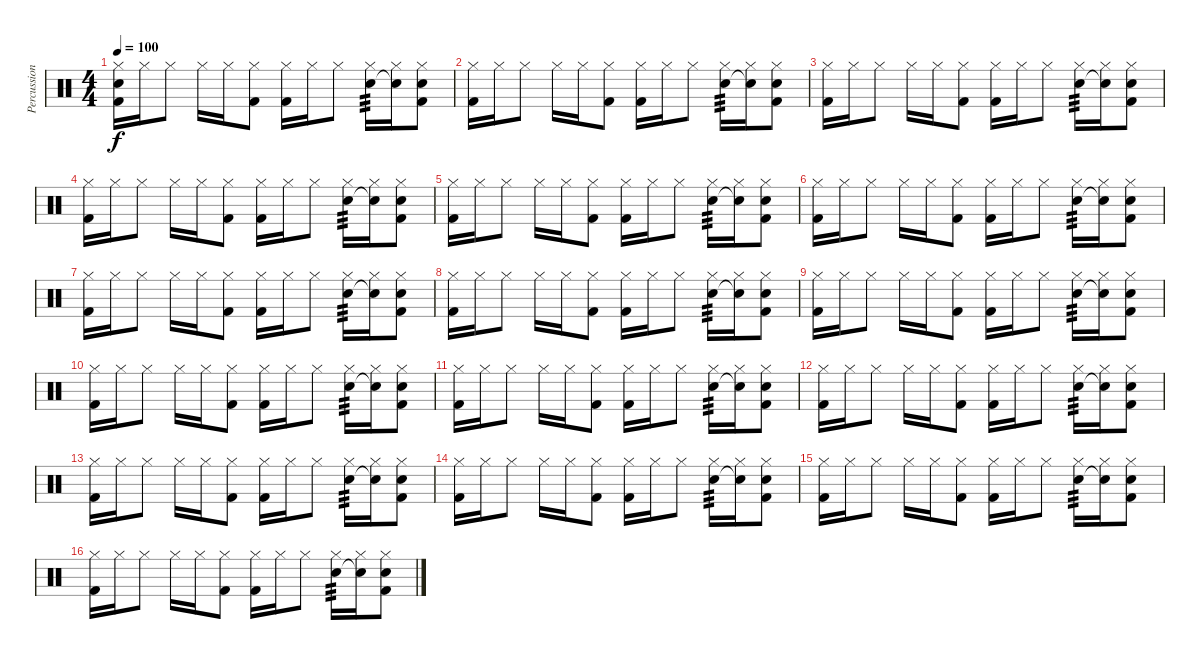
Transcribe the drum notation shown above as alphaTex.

\track ("Percussion" "Percussion") {instrument percussion}
\staff {score}
\articulation defaults
\ts (4 4)
\tempo 100
\clef neutral
\ks c
("Hi-Hat (closed)" "Snare (hit) 2" "Kick (hit) 2").16{dy f} "Hi-Hat (closed)".16 "Hi-Hat (closed)".8 "Hi-Hat (closed)".16 "Hi-Hat (closed)".16 ("Hi-Hat (closed)" "Kick (hit) 2").8 ("Hi-Hat (closed)" "Kick (hit) 2").16 "Hi-Hat (closed)".16 "Hi-Hat (closed)".8 ("Hi-Hat (closed)" "Snare (hit) 2").16{tp 3} ("Hi-Hat (closed)" "Snare (hit) 2"{t}).16 ("Hi-Hat (closed)" "Snare (hit) 2" "Kick (hit) 2").8 |
("Hi-Hat (closed)" "Kick (hit) 2").16 "Hi-Hat (closed)".16 "Hi-Hat (closed)".8 "Hi-Hat (closed)".16 "Hi-Hat (closed)".16 ("Hi-Hat (closed)" "Kick (hit) 2").8 ("Hi-Hat (closed)" "Kick (hit) 2").16 "Hi-Hat (closed)".16 "Hi-Hat (closed)".8 ("Hi-Hat (closed)" "Snare (hit) 2").16{tp 3} ("Hi-Hat (closed)" "Snare (hit) 2"{t}).16 ("Hi-Hat (closed)" "Snare (hit) 2" "Kick (hit) 2").8 |
("Hi-Hat (closed)" "Kick (hit) 2").16 "Hi-Hat (closed)".16 "Hi-Hat (closed)".8 "Hi-Hat (closed)".16 "Hi-Hat (closed)".16 ("Hi-Hat (closed)" "Kick (hit) 2").8 ("Hi-Hat (closed)" "Kick (hit) 2").16 "Hi-Hat (closed)".16 "Hi-Hat (closed)".8 ("Hi-Hat (closed)" "Snare (hit) 2").16{tp 3} ("Hi-Hat (closed)" "Snare (hit) 2"{t}).16 ("Hi-Hat (closed)" "Snare (hit) 2" "Kick (hit) 2").8 |
("Hi-Hat (closed)" "Kick (hit) 2").16 "Hi-Hat (closed)".16 "Hi-Hat (closed)".8 "Hi-Hat (closed)".16 "Hi-Hat (closed)".16 ("Hi-Hat (closed)" "Kick (hit) 2").8 ("Hi-Hat (closed)" "Kick (hit) 2").16 "Hi-Hat (closed)".16 "Hi-Hat (closed)".8 ("Hi-Hat (closed)" "Snare (hit) 2").16{tp 3} ("Hi-Hat (closed)" "Snare (hit) 2"{t}).16 ("Hi-Hat (closed)" "Snare (hit) 2" "Kick (hit) 2").8 |
("Hi-Hat (closed)" "Kick (hit) 2").16 "Hi-Hat (closed)".16 "Hi-Hat (closed)".8 "Hi-Hat (closed)".16 "Hi-Hat (closed)".16 ("Hi-Hat (closed)" "Kick (hit) 2").8 ("Hi-Hat (closed)" "Kick (hit) 2").16 "Hi-Hat (closed)".16 "Hi-Hat (closed)".8 ("Hi-Hat (closed)" "Snare (hit) 2").16{tp 3} ("Hi-Hat (closed)" "Snare (hit) 2"{t}).16 ("Hi-Hat (closed)" "Snare (hit) 2" "Kick (hit) 2").8 |
("Hi-Hat (closed)" "Kick (hit) 2").16 "Hi-Hat (closed)".16 "Hi-Hat (closed)".8 "Hi-Hat (closed)".16 "Hi-Hat (closed)".16 ("Hi-Hat (closed)" "Kick (hit) 2").8 ("Hi-Hat (closed)" "Kick (hit) 2").16 "Hi-Hat (closed)".16 "Hi-Hat (closed)".8 ("Hi-Hat (closed)" "Snare (hit) 2").16{tp 3} ("Hi-Hat (closed)" "Snare (hit) 2"{t}).16 ("Hi-Hat (closed)" "Snare (hit) 2" "Kick (hit) 2").8 |
("Hi-Hat (closed)" "Kick (hit) 2").16 "Hi-Hat (closed)".16 "Hi-Hat (closed)".8 "Hi-Hat (closed)".16 "Hi-Hat (closed)".16 ("Hi-Hat (closed)" "Kick (hit) 2").8 ("Hi-Hat (closed)" "Kick (hit) 2").16 "Hi-Hat (closed)".16 "Hi-Hat (closed)".8 ("Hi-Hat (closed)" "Snare (hit) 2").16{tp 3} ("Hi-Hat (closed)" "Snare (hit) 2"{t}).16 ("Hi-Hat (closed)" "Snare (hit) 2" "Kick (hit) 2").8 |
("Hi-Hat (closed)" "Kick (hit) 2").16 "Hi-Hat (closed)".16 "Hi-Hat (closed)".8 "Hi-Hat (closed)".16 "Hi-Hat (closed)".16 ("Hi-Hat (closed)" "Kick (hit) 2").8 ("Hi-Hat (closed)" "Kick (hit) 2").16 "Hi-Hat (closed)".16 "Hi-Hat (closed)".8 ("Hi-Hat (closed)" "Snare (hit) 2").16{tp 3} ("Hi-Hat (closed)" "Snare (hit) 2"{t}).16 ("Hi-Hat (closed)" "Snare (hit) 2" "Kick (hit) 2").8 |
("Hi-Hat (closed)" "Kick (hit) 2").16 "Hi-Hat (closed)".16 "Hi-Hat (closed)".8 "Hi-Hat (closed)".16 "Hi-Hat (closed)".16 ("Hi-Hat (closed)" "Kick (hit) 2").8 ("Hi-Hat (closed)" "Kick (hit) 2").16 "Hi-Hat (closed)".16 "Hi-Hat (closed)".8 ("Hi-Hat (closed)" "Snare (hit) 2").16{tp 3} ("Hi-Hat (closed)" "Snare (hit) 2"{t}).16 ("Hi-Hat (closed)" "Snare (hit) 2" "Kick (hit) 2").8 |
("Hi-Hat (closed)" "Kick (hit) 2").16 "Hi-Hat (closed)".16 "Hi-Hat (closed)".8 "Hi-Hat (closed)".16 "Hi-Hat (closed)".16 ("Hi-Hat (closed)" "Kick (hit) 2").8 ("Hi-Hat (closed)" "Kick (hit) 2").16 "Hi-Hat (closed)".16 "Hi-Hat (closed)".8 ("Hi-Hat (closed)" "Snare (hit) 2").16{tp 3} ("Hi-Hat (closed)" "Snare (hit) 2"{t}).16 ("Hi-Hat (closed)" "Snare (hit) 2" "Kick (hit) 2").8 |
("Hi-Hat (closed)" "Kick (hit) 2").16 "Hi-Hat (closed)".16 "Hi-Hat (closed)".8 "Hi-Hat (closed)".16 "Hi-Hat (closed)".16 ("Hi-Hat (closed)" "Kick (hit) 2").8 ("Hi-Hat (closed)" "Kick (hit) 2").16 "Hi-Hat (closed)".16 "Hi-Hat (closed)".8 ("Hi-Hat (closed)" "Snare (hit) 2").16{tp 3} ("Hi-Hat (closed)" "Snare (hit) 2"{t}).16 ("Hi-Hat (closed)" "Snare (hit) 2" "Kick (hit) 2").8 |
("Hi-Hat (closed)" "Kick (hit) 2").16 "Hi-Hat (closed)".16 "Hi-Hat (closed)".8 "Hi-Hat (closed)".16 "Hi-Hat (closed)".16 ("Hi-Hat (closed)" "Kick (hit) 2").8 ("Hi-Hat (closed)" "Kick (hit) 2").16 "Hi-Hat (closed)".16 "Hi-Hat (closed)".8 ("Hi-Hat (closed)" "Snare (hit) 2").16{tp 3} ("Hi-Hat (closed)" "Snare (hit) 2"{t}).16 ("Hi-Hat (closed)" "Snare (hit) 2" "Kick (hit) 2").8 |
("Hi-Hat (closed)" "Kick (hit) 2").16 "Hi-Hat (closed)".16 "Hi-Hat (closed)".8 "Hi-Hat (closed)".16 "Hi-Hat (closed)".16 ("Hi-Hat (closed)" "Kick (hit) 2").8 ("Hi-Hat (closed)" "Kick (hit) 2").16 "Hi-Hat (closed)".16 "Hi-Hat (closed)".8 ("Hi-Hat (closed)" "Snare (hit) 2").16{tp 3} ("Hi-Hat (closed)" "Snare (hit) 2"{t}).16 ("Hi-Hat (closed)" "Snare (hit) 2" "Kick (hit) 2").8 |
("Hi-Hat (closed)" "Kick (hit) 2").16 "Hi-Hat (closed)".16 "Hi-Hat (closed)".8 "Hi-Hat (closed)".16 "Hi-Hat (closed)".16 ("Hi-Hat (closed)" "Kick (hit) 2").8 ("Hi-Hat (closed)" "Kick (hit) 2").16 "Hi-Hat (closed)".16 "Hi-Hat (closed)".8 ("Hi-Hat (closed)" "Snare (hit) 2").16{tp 3} ("Hi-Hat (closed)" "Snare (hit) 2"{t}).16 ("Hi-Hat (closed)" "Snare (hit) 2" "Kick (hit) 2").8 |
("Hi-Hat (closed)" "Kick (hit) 2").16 "Hi-Hat (closed)".16 "Hi-Hat (closed)".8 "Hi-Hat (closed)".16 "Hi-Hat (closed)".16 ("Hi-Hat (closed)" "Kick (hit) 2").8 ("Hi-Hat (closed)" "Kick (hit) 2").16 "Hi-Hat (closed)".16 "Hi-Hat (closed)".8 ("Hi-Hat (closed)" "Snare (hit) 2").16{tp 3} ("Hi-Hat (closed)" "Snare (hit) 2"{t}).16 ("Hi-Hat (closed)" "Snare (hit) 2" "Kick (hit) 2").8 |
("Hi-Hat (closed)" "Kick (hit) 2").16 "Hi-Hat (closed)".16 "Hi-Hat (closed)".8 "Hi-Hat (closed)".16 "Hi-Hat (closed)".16 ("Hi-Hat (closed)" "Kick (hit) 2").8 ("Hi-Hat (closed)" "Kick (hit) 2").16 "Hi-Hat (closed)".16 "Hi-Hat (closed)".8 ("Hi-Hat (closed)" "Snare (hit) 2").16{tp 3} ("Hi-Hat (closed)" "Snare (hit) 2"{t}).16 ("Hi-Hat (closed)" "Snare (hit) 2" "Kick (hit) 2").8
